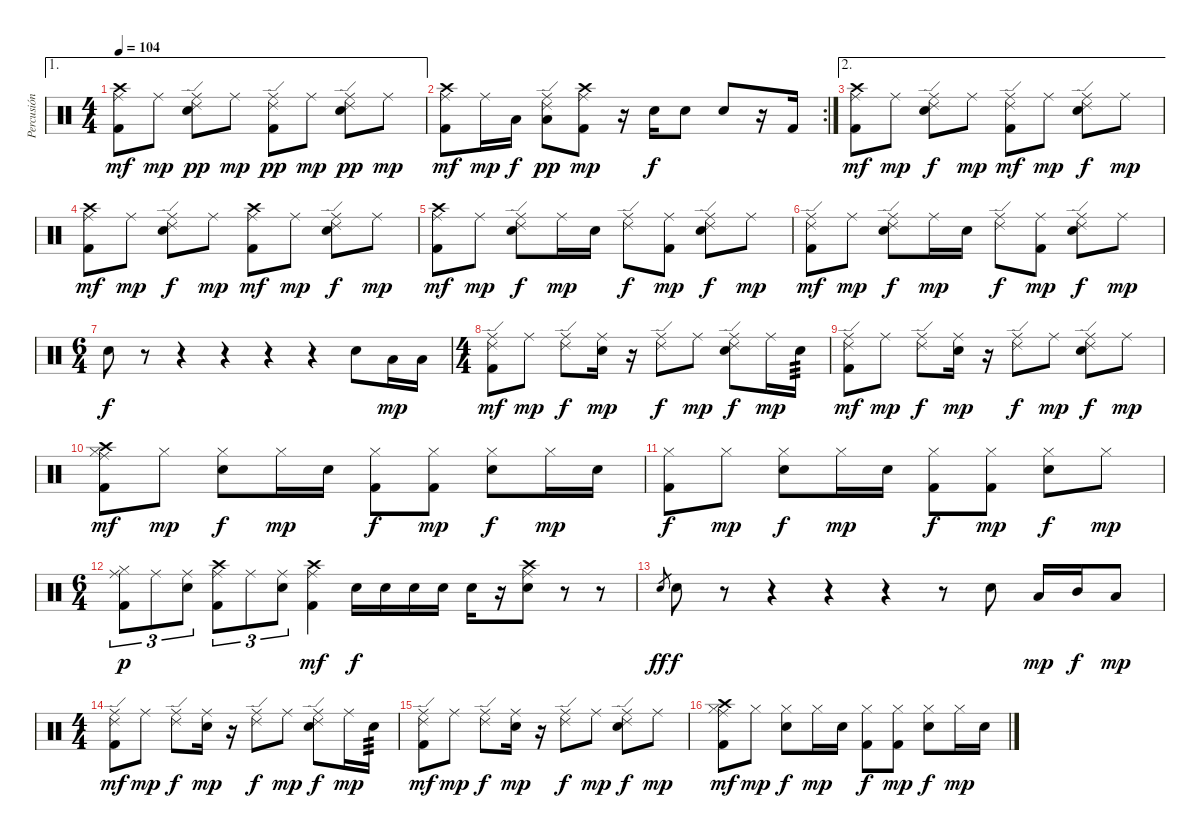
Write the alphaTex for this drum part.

\track ("Percusión" "Percusión") {instrument percussion}
\staff {score}
\articulation defaults
\ae 1
\ts (4 4)
\tempo 104
\clef neutral
\ks c
("Crash high (hit)" "Ride (middle)" "Kick (hit) 2").8{dy mf} "Ride (middle)".8{dy mp} ("Ride (edge) 2" "Ride (middle)" "Snare (hit) 2").8{dy pp} "Ride (middle)".8{dy mp} ("Ride (edge) 2" "Ride (middle)" "Kick (hit) 2").8{dy pp} "Ride (middle)".8{dy mp} ("Ride (edge) 2" "Ride (middle)" "Snare (hit) 2").8{dy pp} "Ride (middle)".8{dy mp} |
\rc 2
("Crash high (hit)" "Ride (middle)" "Kick (hit) 2").8{dy mf} "Ride (middle)".16{dy mp} "Low Floor Tom (hit)".16{dy f} ("Ride (edge) 2" "Ride (middle)" "Low Floor Tom (hit)").8{dy pp} ("Crash high (hit)" "Ride (middle)" "Kick (hit) 2").8{dy mp} r.16 "Snare (hit) 2".16{dy f} "Snare (hit) 2".8 "Snare (hit) 2".8 r.16 "Kick (hit) 2".16 |
\ae 2
("Crash high (hit)" "Ride (middle)" "Kick (hit) 2").8{dy mf} "Ride (middle)".8{dy mp} ("Ride (edge) 2" "Ride (middle)" "Snare (hit) 2").8{dy f} "Ride (middle)".8{dy mp} ("Ride (edge) 2" "Ride (middle)" "Kick (hit) 2").8{dy mf} "Ride (middle)".8{dy mp} ("Ride (edge) 2" "Ride (middle)" "Snare (hit) 2").8{dy f} "Ride (middle)".8{dy mp} |
("Crash high (hit)" "Ride (middle)" "Kick (hit) 2").8{dy mf} "Ride (middle)".8{dy mp} ("Ride (edge) 2" "Ride (middle)" "Snare (hit) 2").8{dy f} "Ride (middle)".8{dy mp} ("Crash high (hit)" "Ride (middle)" "Kick (hit) 2").8{dy mf} "Ride (middle)".8{dy mp} ("Ride (edge) 2" "Ride (middle)" "Snare (hit) 2").8{dy f} "Ride (middle)".8{dy mp} |
("Crash high (hit)" "Ride (middle)" "Kick (hit) 2").8{dy mf} "Ride (middle)".8{dy mp} ("Ride (edge) 2" "Ride (middle)" "Snare (hit) 2").8{dy f} "Ride (middle)".16{dy mp} "Snare (hit) 2".16 ("Ride (edge) 2" "Ride (middle)").8{dy f} ("Ride (middle)" "Kick (hit) 2").8{dy mp} ("Ride (edge) 2" "Ride (middle)" "Snare (hit) 2").8{dy f} "Ride (middle)".8{dy mp} |
("Ride (edge) 2" "Ride (middle)" "Kick (hit) 2").8{dy mf} "Ride (middle)".8{dy mp} ("Ride (edge) 2" "Ride (middle)" "Snare (hit) 2").8{dy f} "Ride (middle)".16{dy mp} "Snare (hit) 2".16 ("Ride (edge) 2" "Ride (middle)").8{dy f} ("Ride (middle)" "Kick (hit) 2").8{dy mp} ("Ride (edge) 2" "Ride (middle)" "Snare (hit) 2").8{dy f} "Ride (middle)".8{dy mp} |
\ts (6 4)
"Snare (hit) 2".8{dy f} r.8 r.4 r.4 r.4 r.4 "Snare (hit) 2".8 "Low Tom (hit)".16{dy mp} "Low Tom (hit)".16 |
\ts (4 4)
("Ride (edge) 2" "Ride (middle)" "Kick (hit) 2").8{dy mf} "Ride (middle)".8{dy mp} ("Ride (edge) 2" "Ride (middle)").8{dy f} ("Ride (middle)" "Snare (hit) 2").16{dy mp} r.16 ("Ride (edge) 2" "Ride (middle)").8{dy f} "Ride (middle)".8{dy mp} ("Ride (edge) 2" "Ride (middle)" "Snare (hit) 2").8{dy f} "Ride (middle)".16{dy mp} "Snare (hit) 2".16{tp 3} |
("Ride (edge) 2" "Ride (middle)" "Kick (hit) 2").8{dy mf} "Ride (middle)".8{dy mp} ("Ride (edge) 2" "Ride (middle)").8{dy f} ("Ride (middle)" "Snare (hit) 2").16{dy mp} r.16 ("Ride (edge) 2" "Ride (middle)").8{dy f} "Ride (middle)".8{dy mp} ("Ride (edge) 2" "Ride (middle)" "Snare (hit) 2").8{dy f} "Ride (middle)".8{dy mp} |
("Crash high (hit)" "Ride (middle)" "Hi-Hat (closed)" "Kick (hit) 2").8{dy mf} "Hi-Hat (closed)".8{dy mp} ("Hi-Hat (closed)" "Snare (hit) 2").8{dy f} "Hi-Hat (closed)".16{dy mp} "Snare (hit) 2".16 ("Hi-Hat (closed)" "Kick (hit) 2").8{dy f} ("Hi-Hat (closed)" "Kick (hit) 2").8{dy mp} ("Hi-Hat (closed)" "Snare (hit) 2").8{dy f} "Hi-Hat (closed)".16{dy mp} "Snare (hit) 2".16 |
("Hi-Hat (closed)" "Kick (hit) 2").8{dy f} "Hi-Hat (closed)".8{dy mp} ("Hi-Hat (closed)" "Snare (hit) 2").8{dy f} "Hi-Hat (closed)".16{dy mp} "Snare (hit) 2".16 ("Hi-Hat (closed)" "Kick (hit) 2").8{dy f} ("Hi-Hat (closed)" "Kick (hit) 2").8{dy mp} ("Hi-Hat (closed)" "Snare (hit) 2").8{dy f} "Hi-Hat (closed)".8{dy mp} |
\ts (6 4)
("Ride (middle)" "Hi-Hat (closed)" "Kick (hit) 2").8{tu (3 2) dy p} "Ride (middle)".8{tu (3 2)} ("Ride (middle)" "Snare (hit) 2").8{tu (3 2)} ("Crash high (hit)" "Ride (middle)" "Kick (hit) 2").8{tu (3 2)} "Ride (middle)".8{tu (3 2)} ("Ride (middle)" "Snare (hit) 2").8{tu (3 2)} ("Crash high (hit)" "Ride (middle)" "Kick (hit) 2").4{dy mf} "Snare (hit) 2".16{dy f} "Snare (hit) 2".16 "Snare (hit) 2".16 "Snare (hit) 2".16 "Snare (hit) 2".16 r.16 ("Crash high (hit)" "Ride (middle)" "Snare (hit) 2").8 r.8 r.8 |
"Snare (hit) 2".8{gr dy ff} "Snare (hit) 2".8{dy f} r.8 r.4 r.4 r.4 r.8 "Snare (hit) 2".8 "Low Tom (hit)".16{dy mp} "Mid Tom (hit)".16{dy f} "Low Tom (hit)".8{dy mp} |
\ts (4 4)
("Ride (edge) 2" "Ride (middle)" "Kick (hit) 2").8{dy mf} "Ride (middle)".8{dy mp} ("Ride (edge) 2" "Ride (middle)").8{dy f} ("Ride (middle)" "Snare (hit) 2").16{dy mp} r.16 ("Ride (edge) 2" "Ride (middle)").8{dy f} "Ride (middle)".8{dy mp} ("Ride (edge) 2" "Ride (middle)" "Snare (hit) 2").8{dy f} "Ride (middle)".16{dy mp} "Snare (hit) 2".16{tp 3} |
("Ride (edge) 2" "Ride (middle)" "Kick (hit) 2").8{dy mf} "Ride (middle)".8{dy mp} ("Ride (edge) 2" "Ride (middle)").8{dy f} ("Ride (middle)" "Snare (hit) 2").16{dy mp} r.16 ("Ride (edge) 2" "Ride (middle)").8{dy f} "Ride (middle)".8{dy mp} ("Ride (edge) 2" "Ride (middle)" "Snare (hit) 2").8{dy f} "Ride (middle)".8{dy mp} |
("Crash high (hit)" "Ride (middle)" "Hi-Hat (closed)" "Kick (hit) 2").8{dy mf} "Hi-Hat (closed)".8{dy mp} ("Hi-Hat (closed)" "Snare (hit) 2").8{dy f} "Hi-Hat (closed)".16{dy mp} "Snare (hit) 2".16 ("Hi-Hat (closed)" "Kick (hit) 2").8{dy f} ("Hi-Hat (closed)" "Kick (hit) 2").8{dy mp} ("Hi-Hat (closed)" "Snare (hit) 2").8{dy f} "Hi-Hat (closed)".16{dy mp} "Snare (hit) 2".16
